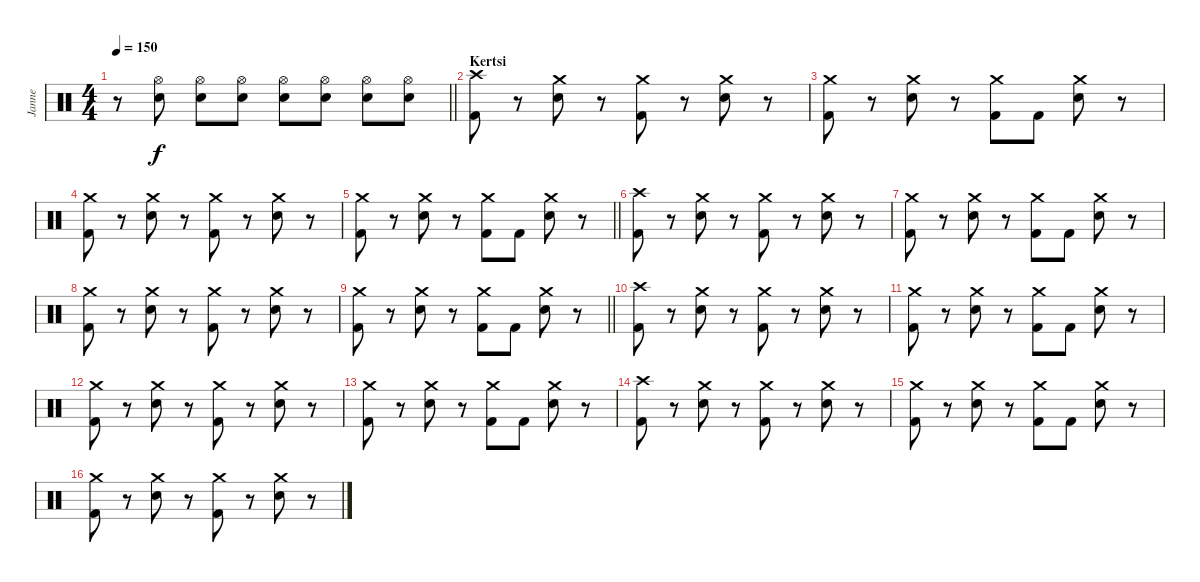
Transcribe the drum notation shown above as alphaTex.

\track ("Janne" "Janne") {instrument percussion}
\staff {score}
\articulation defaults
\ts (4 4)
\tempo 150
\clef neutral
\barLineRight lightlight
\ks c
r.8{dy f} ("Hi-Hat (open)" "Electric Snare (hit)").8 ("Hi-Hat (open)" "Electric Snare (hit)").8 ("Hi-Hat (open)" "Electric Snare (hit)").8 ("Hi-Hat (open)" "Electric Snare (hit)").8 ("Hi-Hat (open)" "Electric Snare (hit)").8 ("Hi-Hat (open)" "Electric Snare (hit)").8 ("Hi-Hat (open)" "Electric Snare (hit)").8 |
\section ("" "Kertsi")
("Crash high (hit)" "Kick (hit) 2").8 r.8 ("Crash medium (hit)" "Electric Snare (hit)").8 r.8 ("Crash medium (hit)" "Kick (hit) 2").8 r.8 ("Crash medium (hit)" "Electric Snare (hit)").8 r.8 |
("Crash medium (hit)" "Kick (hit) 2").8 r.8 ("Crash medium (hit)" "Electric Snare (hit)").8 r.8 ("Crash medium (hit)" "Kick (hit) 2").8 "Kick (hit) 2".8 ("Crash medium (hit)" "Electric Snare (hit)").8 r.8 |
("Crash medium (hit)" "Kick (hit) 2").8 r.8 ("Crash medium (hit)" "Electric Snare (hit)").8 r.8 ("Crash medium (hit)" "Kick (hit) 2").8 r.8 ("Crash medium (hit)" "Electric Snare (hit)").8 r.8 |
\barLineRight lightlight
("Crash medium (hit)" "Kick (hit) 2").8 r.8 ("Crash medium (hit)" "Electric Snare (hit)").8 r.8 ("Crash medium (hit)" "Kick (hit) 2").8 "Kick (hit) 2".8 ("Crash medium (hit)" "Electric Snare (hit)").8 r.8 |
("Crash high (hit)" "Kick (hit) 2").8 r.8 ("Crash medium (hit)" "Electric Snare (hit)").8 r.8 ("Crash medium (hit)" "Kick (hit) 2").8 r.8 ("Crash medium (hit)" "Electric Snare (hit)").8 r.8 |
("Crash medium (hit)" "Kick (hit) 2").8 r.8 ("Crash medium (hit)" "Electric Snare (hit)").8 r.8 ("Crash medium (hit)" "Kick (hit) 2").8 "Kick (hit) 2".8 ("Crash medium (hit)" "Electric Snare (hit)").8 r.8 |
("Crash medium (hit)" "Kick (hit) 2").8 r.8 ("Crash medium (hit)" "Electric Snare (hit)").8 r.8 ("Crash medium (hit)" "Kick (hit) 2").8 r.8 ("Crash medium (hit)" "Electric Snare (hit)").8 r.8 |
\barLineRight lightlight
("Crash medium (hit)" "Kick (hit) 2").8 r.8 ("Crash medium (hit)" "Electric Snare (hit)").8 r.8 ("Crash medium (hit)" "Kick (hit) 2").8 "Kick (hit) 2".8 ("Crash medium (hit)" "Electric Snare (hit)").8 r.8 |
("Crash high (hit)" "Kick (hit) 2").8 r.8 ("Crash medium (hit)" "Electric Snare (hit)").8 r.8 ("Crash medium (hit)" "Kick (hit) 2").8 r.8 ("Crash medium (hit)" "Electric Snare (hit)").8 r.8 |
("Crash medium (hit)" "Kick (hit) 2").8 r.8 ("Crash medium (hit)" "Electric Snare (hit)").8 r.8 ("Crash medium (hit)" "Kick (hit) 2").8 "Kick (hit) 2".8 ("Crash medium (hit)" "Electric Snare (hit)").8 r.8 |
("Crash medium (hit)" "Kick (hit) 2").8 r.8 ("Crash medium (hit)" "Electric Snare (hit)").8 r.8 ("Crash medium (hit)" "Kick (hit) 2").8 r.8 ("Crash medium (hit)" "Electric Snare (hit)").8 r.8 |
("Crash medium (hit)" "Kick (hit) 2").8 r.8 ("Crash medium (hit)" "Electric Snare (hit)").8 r.8 ("Crash medium (hit)" "Kick (hit) 2").8 "Kick (hit) 2".8 ("Crash medium (hit)" "Electric Snare (hit)").8 r.8 |
("Crash high (hit)" "Kick (hit) 2").8 r.8 ("Crash medium (hit)" "Electric Snare (hit)").8 r.8 ("Crash medium (hit)" "Kick (hit) 2").8 r.8 ("Crash medium (hit)" "Electric Snare (hit)").8 r.8 |
("Crash medium (hit)" "Kick (hit) 2").8 r.8 ("Crash medium (hit)" "Electric Snare (hit)").8 r.8 ("Crash medium (hit)" "Kick (hit) 2").8 "Kick (hit) 2".8 ("Crash medium (hit)" "Electric Snare (hit)").8 r.8 |
("Crash medium (hit)" "Kick (hit) 2").8 r.8 ("Crash medium (hit)" "Electric Snare (hit)").8 r.8 ("Crash medium (hit)" "Kick (hit) 2").8 r.8 ("Crash medium (hit)" "Electric Snare (hit)").8 r.8
